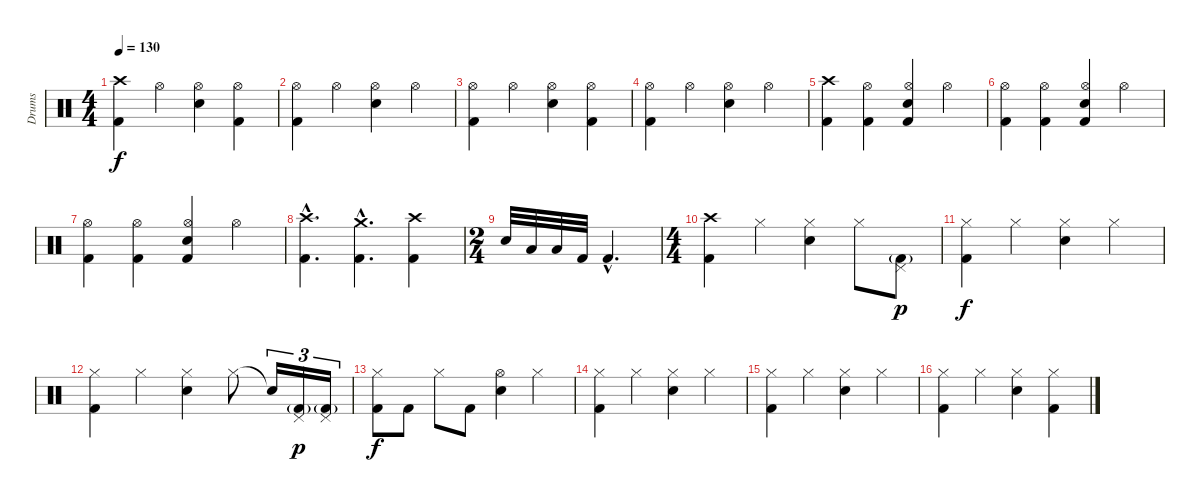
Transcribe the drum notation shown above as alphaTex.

\track ("Drums" "Drums") {instrument percussion}
\staff {score}
\articulation defaults
\ts (4 4)
\tempo 130
\clef neutral
\ks c
("Crash high (hit)" "Kick (hit) 2").4{dy f} "Hi-Hat (open)".4 ("Hi-Hat (open)" "Electric Snare (hit)").4 ("Hi-Hat (open)" "Kick (hit) 2").4 |
("Hi-Hat (open)" "Kick (hit) 2").4 "Hi-Hat (open)".4 ("Hi-Hat (open)" "Electric Snare (hit)").4 "Hi-Hat (open)".4 |
("Hi-Hat (open)" "Kick (hit) 2").4 "Hi-Hat (open)".4 ("Hi-Hat (open)" "Electric Snare (hit)").4 ("Hi-Hat (open)" "Kick (hit) 2").4 |
("Hi-Hat (open)" "Kick (hit) 2").4 "Hi-Hat (open)".4 ("Hi-Hat (open)" "Electric Snare (hit)").4 "Hi-Hat (open)".4 |
("Crash high (hit)" "Kick (hit) 2").4 ("Hi-Hat (open)" "Kick (hit) 2").4 ("Hi-Hat (open)" "Kick (hit) 2" "Electric Snare (hit)").4 "Hi-Hat (open)".4 |
("Hi-Hat (open)" "Kick (hit) 2").4 ("Hi-Hat (open)" "Kick (hit) 2").4 ("Hi-Hat (open)" "Kick (hit) 2" "Electric Snare (hit)").4 "Hi-Hat (open)".4 |
("Hi-Hat (open)" "Kick (hit) 2").4 ("Hi-Hat (open)" "Kick (hit) 2").4 ("Hi-Hat (open)" "Kick (hit) 2" "Electric Snare (hit)").4 "Hi-Hat (open)".4 |
("Crash high (hit)"{hac} "Kick (hit) 2"{hac}).4{d} ("Crash medium (hit)"{hac} "Kick (hit) 2"{hac}).4{d} ("Crash high (hit)" "Kick (hit) 2").4 |
\ts (2 4)
"Electric Snare (hit)".32 "Low Tom (hit)".32 "Low Floor Tom (hit)".32 "Kick (hit) 2".32 "Kick (hit) 2"{hac}.4{d} |
\ts (4 4)
("Crash high (hit)" "Kick (hit) 2").4 "Hi-Hat (closed)".4 ("Hi-Hat (closed)" "Electric Snare (hit)").4 "Hi-Hat (closed)".8 ("Pedal Hi-Hat (hit)" "Kick (hit) 2"{g}).8{dy p} |
("Hi-Hat (closed)" "Kick (hit) 2").4{dy f} "Hi-Hat (closed)".4 ("Hi-Hat (closed)" "Electric Snare (hit)").4 "Hi-Hat (closed)".4 |
("Hi-Hat (closed)" "Kick (hit) 2").4 "Hi-Hat (closed)".4 ("Hi-Hat (closed)" "Electric Snare (hit)").4 "Hi-Hat (closed)".8 "Snare (hit)"{t}.16{tu (3 2)} ("Pedal Hi-Hat (hit)" "Kick (hit) 2"{g}).16{tu (3 2) dy p} ("Pedal Hi-Hat (hit)" "Kick (hit) 2"{g}).16{tu (3 2)} |
("Hi-Hat (closed)" "Kick (hit) 2").8{dy f} "Kick (hit) 2".8 "Hi-Hat (closed)".8 "Kick (hit) 2".8 ("Hi-Hat (open)" "Electric Snare (hit)").4 "Hi-Hat (closed)".4 |
("Hi-Hat (closed)" "Kick (hit) 2").4 "Hi-Hat (closed)".4 ("Hi-Hat (closed)" "Electric Snare (hit)").4 "Hi-Hat (closed)".4 |
("Hi-Hat (closed)" "Kick (hit) 2").4 "Hi-Hat (closed)".4 ("Hi-Hat (closed)" "Electric Snare (hit)").4 "Hi-Hat (closed)".4 |
("Hi-Hat (closed)" "Kick (hit) 2").4 "Hi-Hat (closed)".4 ("Hi-Hat (closed)" "Electric Snare (hit)").4 ("Hi-Hat (closed)" "Kick (hit) 2").4
